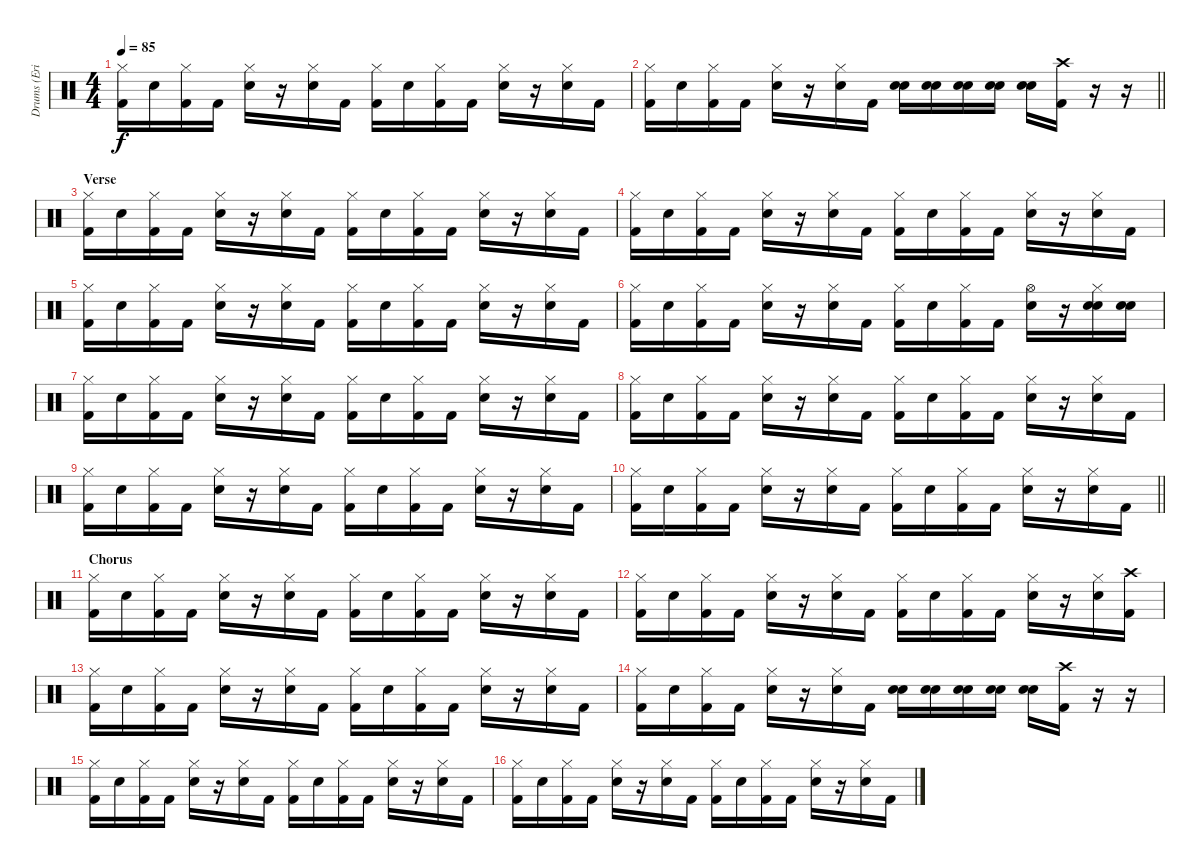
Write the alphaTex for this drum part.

\track ("Drums (Eric Kretz)" "Drums (Eri") {instrument percussion}
\staff {score}
\articulation defaults
\ts (4 4)
\tempo 85
\clef neutral
\ks c
("Hi-Hat (closed)" "Kick (hit) 2").16{dy f} "Electric Snare (hit)".16 ("Hi-Hat (closed)" "Kick (hit) 2").16 "Kick (hit) 2".16 ("Hi-Hat (closed)" "Electric Snare (hit)").16 r.16 ("Hi-Hat (closed)" "Electric Snare (hit)").16 "Kick (hit) 2".16 ("Hi-Hat (closed)" "Kick (hit) 2").16 "Electric Snare (hit)".16 ("Hi-Hat (closed)" "Kick (hit) 2").16 "Kick (hit) 2".16 ("Hi-Hat (closed)" "Electric Snare (hit)").16 r.16 ("Hi-Hat (closed)" "Electric Snare (hit)").16 "Kick (hit) 2".16 |
\barLineRight lightlight
("Hi-Hat (closed)" "Kick (hit) 2").16 "Electric Snare (hit)".16 ("Hi-Hat (closed)" "Kick (hit) 2").16 "Kick (hit) 2".16 ("Hi-Hat (closed)" "Electric Snare (hit)").16 r.16 ("Hi-Hat (closed)" "Electric Snare (hit)").16 "Kick (hit) 2".16 ("Snare (hit) 2" "Electric Snare (hit)").16 ("Snare (hit) 2" "Electric Snare (hit)").16 ("Snare (hit) 2" "Electric Snare (hit)").16 ("Snare (hit) 2" "Electric Snare (hit)").16 ("Snare (hit) 2" "Electric Snare (hit)").16 ("Crash high (hit)" "Kick (hit) 2").16 r.16 r.16 |
\section ("" "Verse")
("Hi-Hat (closed)" "Kick (hit) 2").16 "Electric Snare (hit)".16 ("Hi-Hat (closed)" "Kick (hit) 2").16 "Kick (hit) 2".16 ("Hi-Hat (closed)" "Electric Snare (hit)").16 r.16 ("Hi-Hat (closed)" "Electric Snare (hit)").16 "Kick (hit) 2".16 ("Hi-Hat (closed)" "Kick (hit) 2").16 "Electric Snare (hit)".16 ("Hi-Hat (closed)" "Kick (hit) 2").16 "Kick (hit) 2".16 ("Hi-Hat (closed)" "Electric Snare (hit)").16 r.16 ("Hi-Hat (closed)" "Electric Snare (hit)").16 "Kick (hit) 2".16 |
("Hi-Hat (closed)" "Kick (hit) 2").16 "Electric Snare (hit)".16 ("Hi-Hat (closed)" "Kick (hit) 2").16 "Kick (hit) 2".16 ("Hi-Hat (closed)" "Electric Snare (hit)").16 r.16 ("Hi-Hat (closed)" "Electric Snare (hit)").16 "Kick (hit) 2".16 ("Hi-Hat (closed)" "Kick (hit) 2").16 "Electric Snare (hit)".16 ("Hi-Hat (closed)" "Kick (hit) 2").16 "Kick (hit) 2".16 ("Hi-Hat (closed)" "Electric Snare (hit)").16 r.16 ("Hi-Hat (closed)" "Electric Snare (hit)").16 "Kick (hit) 2".16 |
("Hi-Hat (closed)" "Kick (hit) 2").16 "Electric Snare (hit)".16 ("Hi-Hat (closed)" "Kick (hit) 2").16 "Kick (hit) 2".16 ("Hi-Hat (closed)" "Electric Snare (hit)").16 r.16 ("Hi-Hat (closed)" "Electric Snare (hit)").16 "Kick (hit) 2".16 ("Hi-Hat (closed)" "Kick (hit) 2").16 "Electric Snare (hit)".16 ("Hi-Hat (closed)" "Kick (hit) 2").16 "Kick (hit) 2".16 ("Hi-Hat (closed)" "Electric Snare (hit)").16 r.16 ("Hi-Hat (closed)" "Electric Snare (hit)").16 "Kick (hit) 2".16 |
("Hi-Hat (closed)" "Kick (hit) 2").16 "Electric Snare (hit)".16 ("Hi-Hat (closed)" "Kick (hit) 2").16 "Kick (hit) 2".16 ("Hi-Hat (closed)" "Electric Snare (hit)").16 r.16 ("Hi-Hat (closed)" "Electric Snare (hit)").16 "Kick (hit) 2".16 ("Hi-Hat (closed)" "Kick (hit) 2").16 "Electric Snare (hit)".16 ("Hi-Hat (closed)" "Kick (hit) 2").16 "Kick (hit) 2".16 ("Hi-Hat (open)" "Electric Snare (hit)").16 r.16 ("Hi-Hat (closed)" "Snare (hit) 2" "Electric Snare (hit)").16 ("Snare (hit) 2" "Electric Snare (hit)").16 |
("Hi-Hat (closed)" "Kick (hit) 2").16 "Electric Snare (hit)".16 ("Hi-Hat (closed)" "Kick (hit) 2").16 "Kick (hit) 2".16 ("Hi-Hat (closed)" "Electric Snare (hit)").16 r.16 ("Hi-Hat (closed)" "Electric Snare (hit)").16 "Kick (hit) 2".16 ("Hi-Hat (closed)" "Kick (hit) 2").16 "Electric Snare (hit)".16 ("Hi-Hat (closed)" "Kick (hit) 2").16 "Kick (hit) 2".16 ("Hi-Hat (closed)" "Electric Snare (hit)").16 r.16 ("Hi-Hat (closed)" "Electric Snare (hit)").16 "Kick (hit) 2".16 |
("Hi-Hat (closed)" "Kick (hit) 2").16 "Electric Snare (hit)".16 ("Hi-Hat (closed)" "Kick (hit) 2").16 "Kick (hit) 2".16 ("Hi-Hat (closed)" "Electric Snare (hit)").16 r.16 ("Hi-Hat (closed)" "Electric Snare (hit)").16 "Kick (hit) 2".16 ("Hi-Hat (closed)" "Kick (hit) 2").16 "Electric Snare (hit)".16 ("Hi-Hat (closed)" "Kick (hit) 2").16 "Kick (hit) 2".16 ("Hi-Hat (closed)" "Electric Snare (hit)").16 r.16 ("Hi-Hat (closed)" "Electric Snare (hit)").16 "Kick (hit) 2".16 |
("Hi-Hat (closed)" "Kick (hit) 2").16 "Electric Snare (hit)".16 ("Hi-Hat (closed)" "Kick (hit) 2").16 "Kick (hit) 2".16 ("Hi-Hat (closed)" "Electric Snare (hit)").16 r.16 ("Hi-Hat (closed)" "Electric Snare (hit)").16 "Kick (hit) 2".16 ("Hi-Hat (closed)" "Kick (hit) 2").16 "Electric Snare (hit)".16 ("Hi-Hat (closed)" "Kick (hit) 2").16 "Kick (hit) 2".16 ("Hi-Hat (closed)" "Electric Snare (hit)").16 r.16 ("Hi-Hat (closed)" "Electric Snare (hit)").16 "Kick (hit) 2".16 |
\barLineRight lightlight
("Hi-Hat (closed)" "Kick (hit) 2").16 "Electric Snare (hit)".16 ("Hi-Hat (closed)" "Kick (hit) 2").16 "Kick (hit) 2".16 ("Hi-Hat (closed)" "Electric Snare (hit)").16 r.16 ("Hi-Hat (closed)" "Electric Snare (hit)").16 "Kick (hit) 2".16 ("Hi-Hat (closed)" "Kick (hit) 2").16 "Electric Snare (hit)".16 ("Hi-Hat (closed)" "Kick (hit) 2").16 "Kick (hit) 2".16 ("Hi-Hat (closed)" "Electric Snare (hit)").16 r.16 ("Hi-Hat (closed)" "Electric Snare (hit)").16 "Kick (hit) 2".16 |
\section ("" "Chorus")
("Hi-Hat (closed)" "Kick (hit) 2").16 "Electric Snare (hit)".16 ("Hi-Hat (closed)" "Kick (hit) 2").16 "Kick (hit) 2".16 ("Hi-Hat (closed)" "Electric Snare (hit)").16 r.16 ("Hi-Hat (closed)" "Electric Snare (hit)").16 "Kick (hit) 2".16 ("Hi-Hat (closed)" "Kick (hit) 2").16 "Electric Snare (hit)".16 ("Hi-Hat (closed)" "Kick (hit) 2").16 "Kick (hit) 2".16 ("Hi-Hat (closed)" "Electric Snare (hit)").16 r.16 ("Hi-Hat (closed)" "Electric Snare (hit)").16 "Kick (hit) 2".16 |
("Hi-Hat (closed)" "Kick (hit) 2").16 "Electric Snare (hit)".16 ("Hi-Hat (closed)" "Kick (hit) 2").16 "Kick (hit) 2".16 ("Hi-Hat (closed)" "Electric Snare (hit)").16 r.16 ("Hi-Hat (closed)" "Electric Snare (hit)").16 "Kick (hit) 2".16 ("Hi-Hat (closed)" "Kick (hit) 2").16 "Electric Snare (hit)".16 ("Hi-Hat (closed)" "Kick (hit) 2").16 "Kick (hit) 2".16 ("Hi-Hat (closed)" "Electric Snare (hit)").16 r.16 ("Hi-Hat (closed)" "Electric Snare (hit)").16 ("Crash high (hit)" "Kick (hit) 2").16 |
("Hi-Hat (closed)" "Kick (hit) 2").16 "Electric Snare (hit)".16 ("Hi-Hat (closed)" "Kick (hit) 2").16 "Kick (hit) 2".16 ("Hi-Hat (closed)" "Electric Snare (hit)").16 r.16 ("Hi-Hat (closed)" "Electric Snare (hit)").16 "Kick (hit) 2".16 ("Hi-Hat (closed)" "Kick (hit) 2").16 "Electric Snare (hit)".16 ("Hi-Hat (closed)" "Kick (hit) 2").16 "Kick (hit) 2".16 ("Hi-Hat (closed)" "Electric Snare (hit)").16 r.16 ("Hi-Hat (closed)" "Electric Snare (hit)").16 "Kick (hit) 2".16 |
("Hi-Hat (closed)" "Kick (hit) 2").16 "Electric Snare (hit)".16 ("Hi-Hat (closed)" "Kick (hit) 2").16 "Kick (hit) 2".16 ("Hi-Hat (closed)" "Electric Snare (hit)").16 r.16 ("Hi-Hat (closed)" "Electric Snare (hit)").16 "Kick (hit) 2".16 ("Snare (hit) 2" "Electric Snare (hit)").16 ("Snare (hit) 2" "Electric Snare (hit)").16 ("Snare (hit) 2" "Electric Snare (hit)").16 ("Snare (hit) 2" "Electric Snare (hit)").16 ("Snare (hit) 2" "Electric Snare (hit)").16 ("Crash high (hit)" "Kick (hit) 2").16 r.16 r.16 |
("Hi-Hat (closed)" "Kick (hit) 2").16 "Electric Snare (hit)".16 ("Hi-Hat (closed)" "Kick (hit) 2").16 "Kick (hit) 2".16 ("Hi-Hat (closed)" "Electric Snare (hit)").16 r.16 ("Hi-Hat (closed)" "Electric Snare (hit)").16 "Kick (hit) 2".16 ("Hi-Hat (closed)" "Kick (hit) 2").16 "Electric Snare (hit)".16 ("Hi-Hat (closed)" "Kick (hit) 2").16 "Kick (hit) 2".16 ("Hi-Hat (closed)" "Electric Snare (hit)").16 r.16 ("Hi-Hat (closed)" "Electric Snare (hit)").16 "Kick (hit) 2".16 |
("Hi-Hat (closed)" "Kick (hit) 2").16 "Electric Snare (hit)".16 ("Hi-Hat (closed)" "Kick (hit) 2").16 "Kick (hit) 2".16 ("Hi-Hat (closed)" "Electric Snare (hit)").16 r.16 ("Hi-Hat (closed)" "Electric Snare (hit)").16 "Kick (hit) 2".16 ("Hi-Hat (closed)" "Kick (hit) 2").16 "Electric Snare (hit)".16 ("Hi-Hat (closed)" "Kick (hit) 2").16 "Kick (hit) 2".16 ("Hi-Hat (closed)" "Electric Snare (hit)").16 r.16 ("Hi-Hat (closed)" "Electric Snare (hit)").16 "Kick (hit) 2".16
